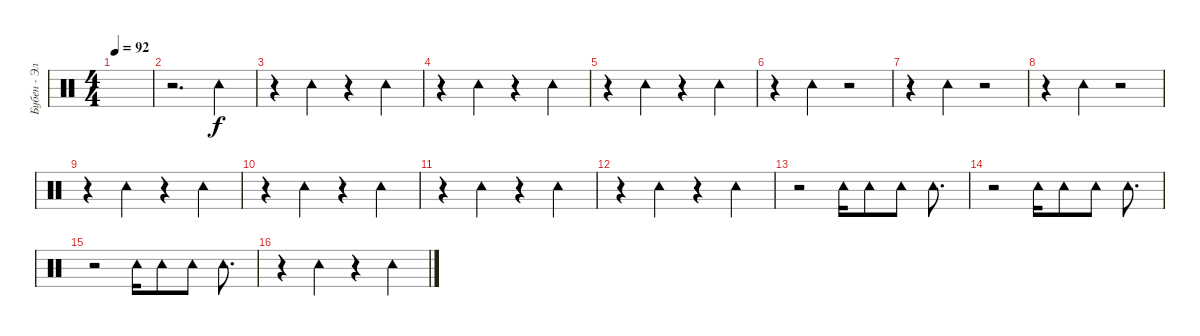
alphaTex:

\track ("Бубен - Элисон Моссхарт" "Бубен - Эл") {instrument percussion}
\staff {score}
\articulation defaults
\ts (4 4)
\tempo 92
\clef neutral
\ks c
|
r.2{d} "Tambourine (hit)".4 |
r.4 "Tambourine (hit)".4 r.4 "Tambourine (hit)".4 |
r.4 "Tambourine (hit)".4 r.4 "Tambourine (hit)".4 |
r.4 "Tambourine (hit)".4 r.4 "Tambourine (hit)".4 |
r.4 "Tambourine (hit)".4 r.2 |
r.4 "Tambourine (hit)".4 r.2 |
r.4 "Tambourine (hit)".4 r.2 |
r.4 "Tambourine (hit)".4 r.4 "Tambourine (hit)".4 |
r.4 "Tambourine (hit)".4 r.4 "Tambourine (hit)".4 |
r.4 "Tambourine (hit)".4 r.4 "Tambourine (hit)".4 |
r.4 "Tambourine (hit)".4 r.4 "Tambourine (hit)".4 |
r.2 "Tambourine (hit)".16 "Tambourine (hit)".8 "Tambourine (hit)".8 "Tambourine (hit)".8{d} |
r.2 "Tambourine (hit)".16 "Tambourine (hit)".8 "Tambourine (hit)".8 "Tambourine (hit)".8{d} |
r.2 "Tambourine (hit)".16 "Tambourine (hit)".8 "Tambourine (hit)".8 "Tambourine (hit)".8{d} |
r.4 "Tambourine (hit)".4 r.4 "Tambourine (hit)".4
